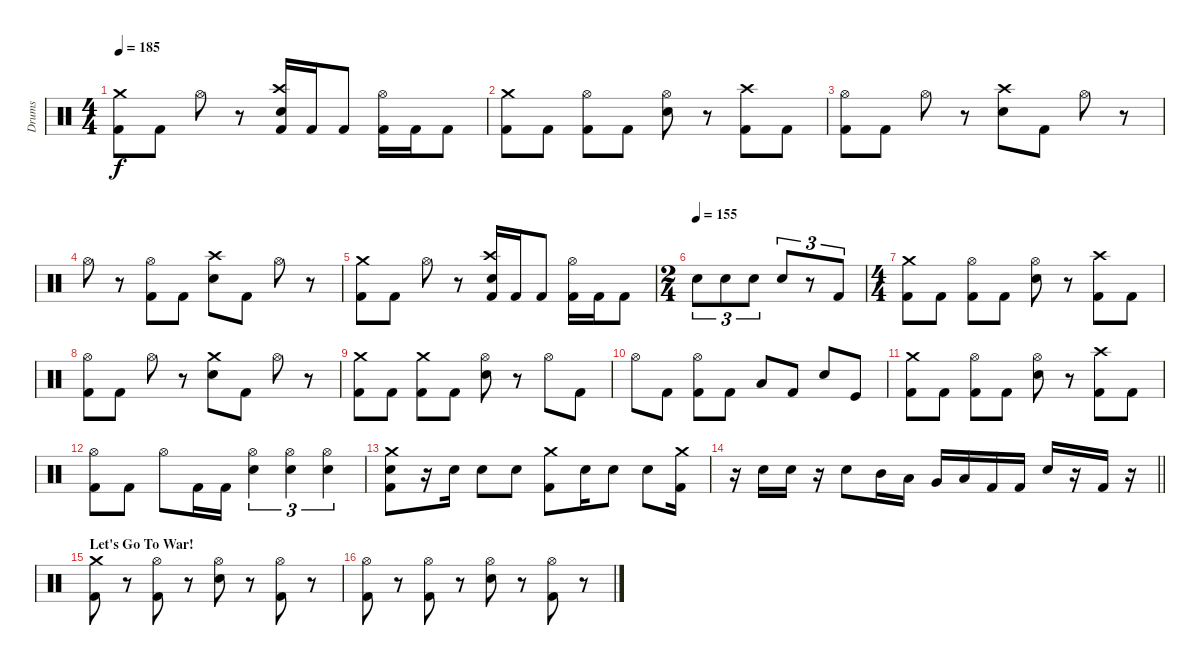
\track ("Drums" "Drums") {instrument percussion}
\staff {score}
\articulation defaults
\ts (4 4)
\tempo 185
\clef neutral
\ks c
("Crash medium (hit)" "Kick (hit) 2").8{dy f} "Kick (hit) 2".8 "Hi-Hat (open)".8 r.8 ("Crash high (hit)" "Electric Snare (hit)" "Kick (hit) 2").16 "Kick (hit) 2".16 "Kick (hit) 2".8 ("Hi-Hat (open)" "Kick (hit) 2").16 "Kick (hit) 2".16 "Kick (hit) 2".8 |
("Crash medium (hit)" "Kick (hit) 2").8 "Kick (hit) 2".8 ("Hi-Hat (open)" "Kick (hit) 2").8 "Kick (hit) 2".8 ("Hi-Hat (open)" "Electric Snare (hit)").8 r.8 ("Crash high (hit)" "Kick (hit) 2").8 "Kick (hit) 2".8 |
("Hi-Hat (open)" "Kick (hit) 2").8 "Kick (hit) 2".8 "Hi-Hat (open)".8 r.8 ("Crash high (hit)" "Electric Snare (hit)").8 "Kick (hit) 2".8 "Hi-Hat (open)".8 r.8 |
"Hi-Hat (open)".8 r.8 ("Hi-Hat (open)" "Kick (hit) 2").8 "Kick (hit) 2".8 ("Crash high (hit)" "Electric Snare (hit)").8 "Kick (hit) 2".8 "Hi-Hat (open)".8 r.8 |
("Crash medium (hit)" "Kick (hit) 2").8 "Kick (hit) 2".8 "Hi-Hat (open)".8 r.8 ("Crash high (hit)" "Electric Snare (hit)" "Kick (hit) 2").16 "Kick (hit) 2".16 "Kick (hit) 2".8 ("Hi-Hat (open)" "Kick (hit) 2").16 "Kick (hit) 2".16 "Kick (hit) 2".8 |
\ts (2 4)
\tempo (155)
"Electric Snare (hit)".8{tu (3 2)} "Electric Snare (hit)".8{tu (3 2)} "Electric Snare (hit)".8{tu (3 2)} "Electric Snare (hit)".8{tu (3 2)} r.8{tu (3 2)} "Kick (hit) 2".8{tu (3 2)} |
\ts (4 4)
("Crash medium (hit)" "Kick (hit) 2").8 "Kick (hit) 2".8 ("Hi-Hat (open)" "Kick (hit) 2").8 "Kick (hit) 2".8 ("Hi-Hat (open)" "Electric Snare (hit)").8 r.8 ("Crash high (hit)" "Kick (hit) 2").8 "Kick (hit) 2".8 |
("Hi-Hat (open)" "Kick (hit) 2").8 "Kick (hit) 2".8 "Hi-Hat (open)".8 r.8 ("Crash medium (hit)" "Electric Snare (hit)").8 "Kick (hit) 2".8 "Hi-Hat (open)".8 r.8 |
("Crash medium (hit)" "Kick (hit) 2").8 "Kick (hit) 2".8 ("Crash medium (hit)" "Kick (hit) 2").8 "Kick (hit) 2".8 ("Hi-Hat (open)" "Electric Snare (hit)").8 r.8 "Hi-Hat (open)".8 "Kick (hit) 2".8 |
"Hi-Hat (open)".8 "Kick (hit) 2".8 ("Hi-Hat (open)" "Kick (hit) 2").8 "Kick (hit) 2".8 "Low Tom (hit)".8 "Kick (hit) 2".8 "Electric Snare (hit)".8 "Kick (hit)".8 |
("Crash medium (hit)" "Kick (hit) 2").8 "Kick (hit) 2".8 ("Hi-Hat (open)" "Kick (hit) 2").8 "Kick (hit) 2".8 ("Hi-Hat (open)" "Electric Snare (hit)").8 r.8 ("Crash high (hit)" "Kick (hit) 2").8 "Kick (hit) 2".8 |
("Hi-Hat (open)" "Kick (hit) 2").8 "Kick (hit) 2".8 "Hi-Hat (open)".8 "Kick (hit) 2".16 "Kick (hit) 2".16 ("Hi-Hat (open)" "Electric Snare (hit)").4{tu (3 2)} ("Hi-Hat (open)" "Electric Snare (hit)").4{tu (3 2)} ("Hi-Hat (open)" "Electric Snare (hit)").4{tu (3 2)} |
("Crash medium (hit)" "Electric Snare (hit)" "Kick (hit) 2").8 r.16 "Electric Snare (hit)".16 "Electric Snare (hit)".8 "Electric Snare (hit)".8 ("Crash medium (hit)" "Kick (hit) 2").8 "Electric Snare (hit)".16 "Electric Snare (hit)".8 "Electric Snare (hit)".8 ("Crash medium (hit)" "Kick (hit) 2").16 |
\barLineRight lightlight
r.16 "Electric Snare (hit)".16 "Electric Snare (hit)".16 r.16 "Electric Snare (hit)".8 "Mid Tom (hit)".16 "Low Tom (hit)".16 "Very Low Tom (hit)".16 "Low Floor Tom (hit)".16 "Kick (hit) 2".16 "Kick (hit) 2".16 "Electric Snare (hit)".16 r.16 "Kick (hit) 2".16 r.16 |
\section ("" "Let's Go To War!")
("Crash medium (hit)" "Kick (hit) 2").8 r.8 ("Hi-Hat (open)" "Kick (hit) 2").8 r.8 ("Hi-Hat (open)" "Electric Snare (hit)").8 r.8 ("Hi-Hat (open)" "Kick (hit) 2").8 r.8 |
("Hi-Hat (open)" "Kick (hit) 2").8 r.8 ("Hi-Hat (open)" "Kick (hit) 2").8 r.8 ("Hi-Hat (open)" "Electric Snare (hit)").8 r.8 ("Hi-Hat (open)" "Kick (hit) 2").8 r.8
